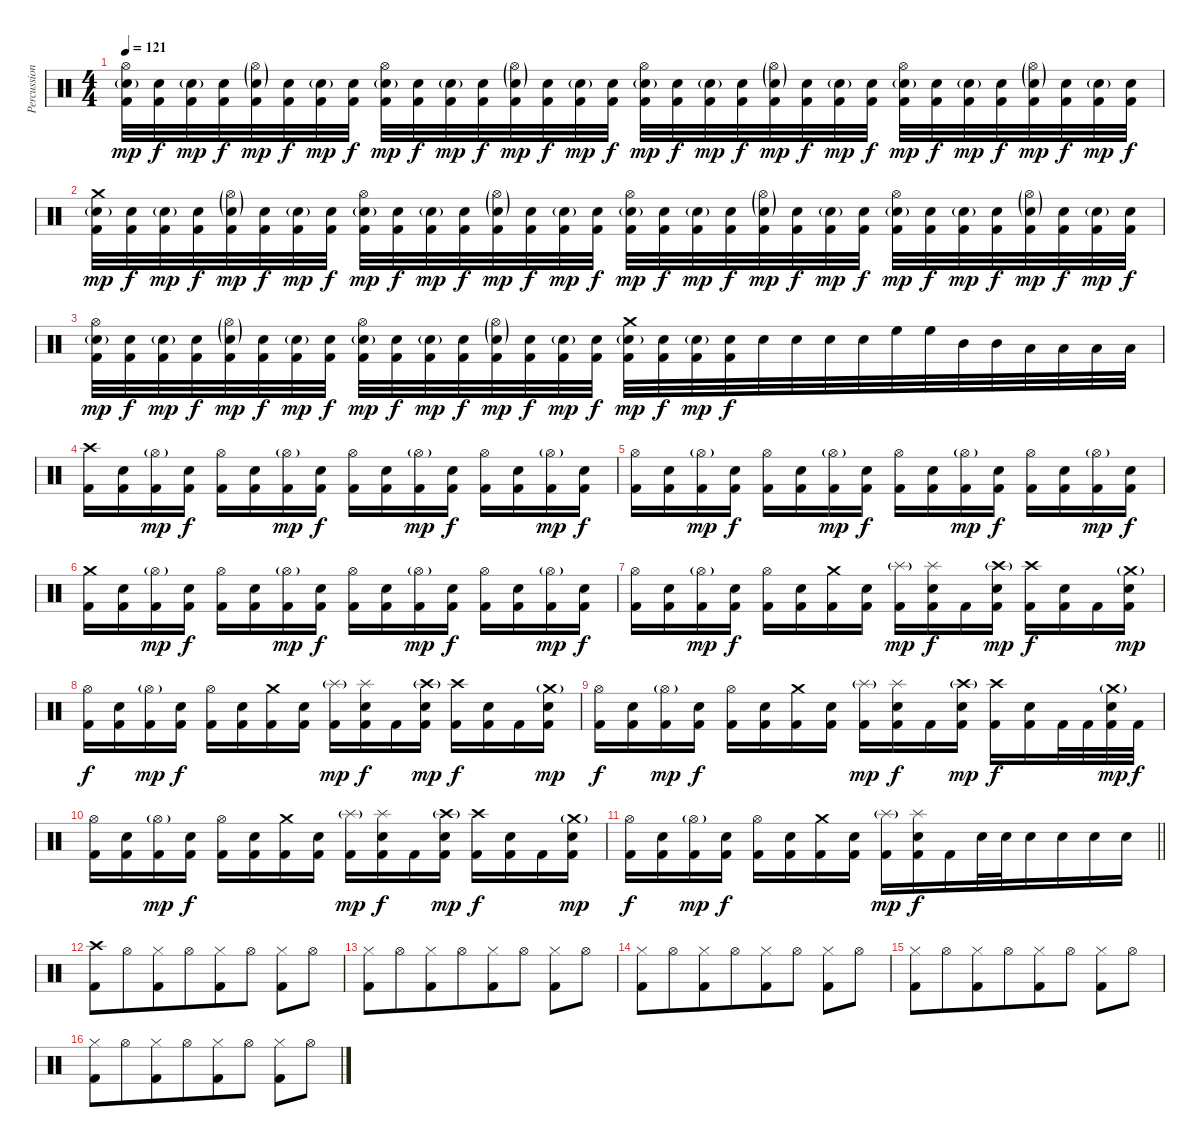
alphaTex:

\track ("Percussion" "Percussion") {instrument percussion}
\staff {score}
\articulation defaults
\ts (4 4)
\tempo 121
\clef neutral
\ks c
("Hi-Hat (open)" "Electric Snare (hit)"{g} "Kick (hit) 2").32{dy mp} ("Electric Snare (hit)" "Kick (hit) 2").32{dy f} ("Electric Snare (hit)"{g} "Kick (hit) 2").32{dy mp} ("Electric Snare (hit)" "Kick (hit) 2").32{dy f beam merge} ("Hi-Hat (open)"{g} "Electric Snare (hit)"{g} "Kick (hit) 2").32{dy mp beam merge} ("Electric Snare (hit)" "Kick (hit) 2").32{dy f beam merge} ("Electric Snare (hit)"{g} "Kick (hit) 2").32{dy mp} ("Electric Snare (hit)" "Kick (hit) 2").32{dy f} ("Hi-Hat (open)" "Electric Snare (hit)"{g} "Kick (hit) 2").32{dy mp} ("Electric Snare (hit)" "Kick (hit) 2").32{dy f} ("Electric Snare (hit)"{g} "Kick (hit) 2").32{dy mp} ("Electric Snare (hit)" "Kick (hit) 2").32{dy f} ("Hi-Hat (open)"{g} "Electric Snare (hit)"{g} "Kick (hit) 2").32{dy mp} ("Electric Snare (hit)" "Kick (hit) 2").32{dy f beam merge} ("Electric Snare (hit)"{g} "Kick (hit) 2").32{dy mp} ("Electric Snare (hit)" "Kick (hit) 2").32{dy f} ("Hi-Hat (open)" "Electric Snare (hit)"{g} "Kick (hit) 2").32{dy mp} ("Electric Snare (hit)" "Kick (hit) 2").32{dy f} ("Electric Snare (hit)"{g} "Kick (hit) 2").32{dy mp} ("Electric Snare (hit)" "Kick (hit) 2").32{dy f beam merge} ("Hi-Hat (open)"{g} "Electric Snare (hit)"{g} "Kick (hit) 2").32{dy mp beam merge} ("Electric Snare (hit)" "Kick (hit) 2").32{dy f beam merge} ("Electric Snare (hit)"{g} "Kick (hit) 2").32{dy mp beam merge} ("Electric Snare (hit)" "Kick (hit) 2").32{dy f} ("Hi-Hat (open)" "Electric Snare (hit)"{g} "Kick (hit) 2").32{dy mp} ("Electric Snare (hit)" "Kick (hit) 2").32{dy f} ("Electric Snare (hit)"{g} "Kick (hit) 2").32{dy mp beam merge} ("Electric Snare (hit)" "Kick (hit) 2").32{dy f} ("Hi-Hat (open)"{g} "Electric Snare (hit)"{g} "Kick (hit) 2").32{dy mp beam merge} ("Electric Snare (hit)" "Kick (hit) 2").32{dy f beam merge} ("Electric Snare (hit)"{g} "Kick (hit) 2").32{dy mp beam merge} ("Electric Snare (hit)" "Kick (hit) 2").32{dy f} |
("Crash medium (hit)" "Electric Snare (hit)"{g} "Kick (hit) 2").32{dy mp} ("Electric Snare (hit)" "Kick (hit) 2").32{dy f} ("Electric Snare (hit)"{g} "Kick (hit) 2").32{dy mp} ("Electric Snare (hit)" "Kick (hit) 2").32{dy f beam merge} ("Hi-Hat (open)"{g} "Electric Snare (hit)"{g} "Kick (hit) 2").32{dy mp beam merge} ("Electric Snare (hit)" "Kick (hit) 2").32{dy f beam merge} ("Electric Snare (hit)"{g} "Kick (hit) 2").32{dy mp} ("Electric Snare (hit)" "Kick (hit) 2").32{dy f} ("Hi-Hat (open)" "Electric Snare (hit)"{g} "Kick (hit) 2").32{dy mp} ("Electric Snare (hit)" "Kick (hit) 2").32{dy f} ("Electric Snare (hit)"{g} "Kick (hit) 2").32{dy mp} ("Electric Snare (hit)" "Kick (hit) 2").32{dy f} ("Hi-Hat (open)"{g} "Electric Snare (hit)"{g} "Kick (hit) 2").32{dy mp} ("Electric Snare (hit)" "Kick (hit) 2").32{dy f beam merge} ("Electric Snare (hit)"{g} "Kick (hit) 2").32{dy mp} ("Electric Snare (hit)" "Kick (hit) 2").32{dy f} ("Hi-Hat (open)" "Electric Snare (hit)"{g} "Kick (hit) 2").32{dy mp} ("Electric Snare (hit)" "Kick (hit) 2").32{dy f} ("Electric Snare (hit)"{g} "Kick (hit) 2").32{dy mp} ("Electric Snare (hit)" "Kick (hit) 2").32{dy f beam merge} ("Hi-Hat (open)"{g} "Electric Snare (hit)"{g} "Kick (hit) 2").32{dy mp beam merge} ("Electric Snare (hit)" "Kick (hit) 2").32{dy f beam merge} ("Electric Snare (hit)"{g} "Kick (hit) 2").32{dy mp beam merge} ("Electric Snare (hit)" "Kick (hit) 2").32{dy f} ("Hi-Hat (open)" "Electric Snare (hit)"{g} "Kick (hit) 2").32{dy mp} ("Electric Snare (hit)" "Kick (hit) 2").32{dy f} ("Electric Snare (hit)"{g} "Kick (hit) 2").32{dy mp beam merge} ("Electric Snare (hit)" "Kick (hit) 2").32{dy f} ("Hi-Hat (open)"{g} "Electric Snare (hit)"{g} "Kick (hit) 2").32{dy mp beam merge} ("Electric Snare (hit)" "Kick (hit) 2").32{dy f beam merge} ("Electric Snare (hit)"{g} "Kick (hit) 2").32{dy mp beam merge} ("Electric Snare (hit)" "Kick (hit) 2").32{dy f} |
("Hi-Hat (open)" "Electric Snare (hit)"{g} "Kick (hit) 2").32{dy mp} ("Electric Snare (hit)" "Kick (hit) 2").32{dy f} ("Electric Snare (hit)"{g} "Kick (hit) 2").32{dy mp} ("Electric Snare (hit)" "Kick (hit) 2").32{dy f beam merge} ("Hi-Hat (open)"{g} "Electric Snare (hit)"{g} "Kick (hit) 2").32{dy mp beam merge} ("Electric Snare (hit)" "Kick (hit) 2").32{dy f beam merge} ("Electric Snare (hit)"{g} "Kick (hit) 2").32{dy mp} ("Electric Snare (hit)" "Kick (hit) 2").32{dy f} ("Hi-Hat (open)" "Electric Snare (hit)"{g} "Kick (hit) 2").32{dy mp} ("Electric Snare (hit)" "Kick (hit) 2").32{dy f} ("Electric Snare (hit)"{g} "Kick (hit) 2").32{dy mp} ("Electric Snare (hit)" "Kick (hit) 2").32{dy f} ("Hi-Hat (open)"{g} "Electric Snare (hit)"{g} "Kick (hit) 2").32{dy mp} ("Electric Snare (hit)" "Kick (hit) 2").32{dy f beam merge} ("Electric Snare (hit)"{g} "Kick (hit) 2").32{dy mp} ("Electric Snare (hit)" "Kick (hit) 2").32{dy f} ("Crash medium (hit)" "Electric Snare (hit)"{g} "Kick (hit) 2").32{dy mp} ("Electric Snare (hit)" "Kick (hit) 2").32{dy f} ("Electric Snare (hit)"{g} "Kick (hit) 2").32{dy mp} ("Electric Snare (hit)" "Kick (hit) 2").32{dy f beam merge} "Electric Snare (hit)".32 "Electric Snare (hit)".32{beam merge} "Electric Snare (hit)".32 "Electric Snare (hit)".32{beam merge} "High Floor Tom (hit)".32 "High Floor Tom (hit)".32 "Mid Tom (hit)".32 "Mid Tom (hit)".32 "Low Floor Tom (hit)".32{beam merge} "Low Floor Tom (hit)".32 "Low Floor Tom (hit)".32 "Low Floor Tom (hit)".32 |
("Crash high (hit)" "Kick (hit) 2").16 ("Electric Snare (hit)" "Kick (hit) 2").16{beam merge} ("Hi-Hat (open)"{g} "Kick (hit) 2").16{dy mp beam merge} ("Electric Snare (hit)" "Kick (hit) 2").16{dy f} ("Hi-Hat (open)" "Kick (hit) 2").16 ("Electric Snare (hit)" "Kick (hit) 2").16 ("Hi-Hat (open)"{g} "Kick (hit) 2").16{dy mp beam merge} ("Electric Snare (hit)" "Kick (hit) 2").16{dy f} ("Hi-Hat (open)" "Kick (hit) 2").16 ("Electric Snare (hit)" "Kick (hit) 2").16{beam merge} ("Hi-Hat (open)"{g} "Kick (hit) 2").16{dy mp beam merge} ("Electric Snare (hit)" "Kick (hit) 2").16{dy f} ("Hi-Hat (open)" "Kick (hit) 2").16 ("Electric Snare (hit)" "Kick (hit) 2").16 ("Hi-Hat (open)"{g} "Kick (hit) 2").16{dy mp beam merge} ("Electric Snare (hit)" "Kick (hit) 2").16{dy f} |
("Hi-Hat (open)" "Kick (hit) 2").16 ("Electric Snare (hit)" "Kick (hit) 2").16{beam merge} ("Hi-Hat (open)"{g} "Kick (hit) 2").16{dy mp beam merge} ("Electric Snare (hit)" "Kick (hit) 2").16{dy f} ("Hi-Hat (open)" "Kick (hit) 2").16 ("Electric Snare (hit)" "Kick (hit) 2").16 ("Hi-Hat (open)"{g} "Kick (hit) 2").16{dy mp beam merge} ("Electric Snare (hit)" "Kick (hit) 2").16{dy f} ("Hi-Hat (open)" "Kick (hit) 2").16 ("Electric Snare (hit)" "Kick (hit) 2").16{beam merge} ("Hi-Hat (open)"{g} "Kick (hit) 2").16{dy mp beam merge} ("Electric Snare (hit)" "Kick (hit) 2").16{dy f} ("Hi-Hat (open)" "Kick (hit) 2").16 ("Electric Snare (hit)" "Kick (hit) 2").16 ("Hi-Hat (open)"{g} "Kick (hit) 2").16{dy mp beam merge} ("Electric Snare (hit)" "Kick (hit) 2").16{dy f} |
("Crash medium (hit)" "Kick (hit) 2").16 ("Electric Snare (hit)" "Kick (hit) 2").16{beam merge} ("Hi-Hat (open)"{g} "Kick (hit) 2").16{dy mp beam merge} ("Electric Snare (hit)" "Kick (hit) 2").16{dy f} ("Hi-Hat (open)" "Kick (hit) 2").16 ("Electric Snare (hit)" "Kick (hit) 2").16 ("Hi-Hat (open)"{g} "Kick (hit) 2").16{dy mp beam merge} ("Electric Snare (hit)" "Kick (hit) 2").16{dy f} ("Hi-Hat (open)" "Kick (hit) 2").16 ("Electric Snare (hit)" "Kick (hit) 2").16{beam merge} ("Hi-Hat (open)"{g} "Kick (hit) 2").16{dy mp beam merge} ("Electric Snare (hit)" "Kick (hit) 2").16{dy f} ("Hi-Hat (open)" "Kick (hit) 2").16 ("Electric Snare (hit)" "Kick (hit) 2").16 ("Hi-Hat (open)"{g} "Kick (hit) 2").16{dy mp beam merge} ("Electric Snare (hit)" "Kick (hit) 2").16{dy f} |
("Hi-Hat (open)" "Kick (hit) 2").16 ("Electric Snare (hit)" "Kick (hit) 2").16{beam merge} ("Hi-Hat (open)"{g} "Kick (hit) 2").16{dy mp beam merge} ("Electric Snare (hit)" "Kick (hit) 2").16{dy f} ("Hi-Hat (open)" "Kick (hit) 2").16 ("Electric Snare (hit)" "Kick (hit) 2").16 ("Crash medium (hit)" "Kick (hit) 2").16{beam merge} ("Electric Snare (hit)" "Kick (hit) 2").16 ("Splash (hit)"{g} "Kick (hit) 2").16{dy mp} ("Splash (hit)" "Electric Snare (hit)" "Kick (hit) 2").16{dy f beam merge} "Kick (hit) 2".16{beam merge} ("Crash high (hit)"{g} "Electric Snare (hit)" "Kick (hit) 2").16{dy mp} ("Crash high (hit)" "Kick (hit) 2").16{dy f} ("Electric Snare (hit)" "Kick (hit) 2").16 "Kick (hit) 2".16{beam merge} ("Crash medium (hit)"{g} "Electric Snare (hit)" "Kick (hit) 2").16{dy mp} |
("Hi-Hat (open)" "Kick (hit) 2").16{dy f} ("Electric Snare (hit)" "Kick (hit) 2").16{beam merge} ("Hi-Hat (open)"{g} "Kick (hit) 2").16{dy mp beam merge} ("Electric Snare (hit)" "Kick (hit) 2").16{dy f} ("Hi-Hat (open)" "Kick (hit) 2").16 ("Electric Snare (hit)" "Kick (hit) 2").16 ("Crash medium (hit)" "Kick (hit) 2").16{beam merge} ("Electric Snare (hit)" "Kick (hit) 2").16 ("Splash (hit)"{g} "Kick (hit) 2").16{dy mp} ("Splash (hit)" "Electric Snare (hit)" "Kick (hit) 2").16{dy f beam merge} "Kick (hit) 2".16{beam merge} ("Crash high (hit)"{g} "Electric Snare (hit)" "Kick (hit) 2").16{dy mp} ("Crash high (hit)" "Kick (hit) 2").16{dy f} ("Electric Snare (hit)" "Kick (hit) 2").16 "Kick (hit) 2".16{beam merge} ("Crash medium (hit)"{g} "Electric Snare (hit)" "Kick (hit) 2").16{dy mp} |
("Hi-Hat (open)" "Kick (hit) 2").16{dy f} ("Electric Snare (hit)" "Kick (hit) 2").16{beam merge} ("Hi-Hat (open)"{g} "Kick (hit) 2").16{dy mp beam merge} ("Electric Snare (hit)" "Kick (hit) 2").16{dy f} ("Hi-Hat (open)" "Kick (hit) 2").16 ("Electric Snare (hit)" "Kick (hit) 2").16 ("Crash medium (hit)" "Kick (hit) 2").16{beam merge} ("Electric Snare (hit)" "Kick (hit) 2").16 ("Splash (hit)"{g} "Kick (hit) 2").16{dy mp} ("Splash (hit)" "Electric Snare (hit)" "Kick (hit) 2").16{dy f beam merge} "Kick (hit) 2".16{beam merge} ("Crash high (hit)"{g} "Electric Snare (hit)" "Kick (hit) 2").16{dy mp} ("Crash high (hit)" "Kick (hit) 2").16{dy f} ("Electric Snare (hit)" "Kick (hit) 2").16 "Kick (hit) 2".32 "Kick (hit) 2".32{beam merge} ("Crash medium (hit)"{g} "Electric Snare (hit)" "Kick (hit) 2").32{dy mp} "Kick (hit) 2".32{dy f} |
("Hi-Hat (open)" "Kick (hit) 2").16 ("Electric Snare (hit)" "Kick (hit) 2").16{beam merge} ("Hi-Hat (open)"{g} "Kick (hit) 2").16{dy mp beam merge} ("Electric Snare (hit)" "Kick (hit) 2").16{dy f} ("Hi-Hat (open)" "Kick (hit) 2").16 ("Electric Snare (hit)" "Kick (hit) 2").16 ("Crash medium (hit)" "Kick (hit) 2").16{beam merge} ("Electric Snare (hit)" "Kick (hit) 2").16 ("Splash (hit)"{g} "Kick (hit) 2").16{dy mp} ("Splash (hit)" "Electric Snare (hit)" "Kick (hit) 2").16{dy f beam merge} "Kick (hit) 2".16{beam merge} ("Crash high (hit)"{g} "Electric Snare (hit)" "Kick (hit) 2").16{dy mp} ("Crash high (hit)" "Kick (hit) 2").16{dy f} ("Electric Snare (hit)" "Kick (hit) 2").16 "Kick (hit) 2".16{beam merge} ("Crash medium (hit)"{g} "Electric Snare (hit)" "Kick (hit) 2").16{dy mp} |
\barLineRight lightlight
("Hi-Hat (open)" "Kick (hit) 2").16{dy f} ("Electric Snare (hit)" "Kick (hit) 2").16{beam merge} ("Hi-Hat (open)"{g} "Kick (hit) 2").16{dy mp beam merge} ("Electric Snare (hit)" "Kick (hit) 2").16{dy f} ("Hi-Hat (open)" "Kick (hit) 2").16 ("Electric Snare (hit)" "Kick (hit) 2").16 ("Crash medium (hit)" "Kick (hit) 2").16{beam merge} ("Electric Snare (hit)" "Kick (hit) 2").16 ("Splash (hit)"{g} "Kick (hit) 2").16{dy mp} ("Splash (hit)" "Electric Snare (hit)" "Kick (hit) 2").16{dy f beam merge} "Kick (hit) 2".16 "Electric Snare (hit)".32 "Electric Snare (hit)".32{beam merge} "Electric Snare (hit)".16 "Electric Snare (hit)".16{beam merge} "Electric Snare (hit)".16 "Electric Snare (hit)".16 |
\section ("" "")
("Crash high (hit)" "Kick (hit) 2").8 "Hi-Hat (open)".8{beam merge} ("Hi-Hat (closed)" "Kick (hit) 2").8{beam merge} "Hi-Hat (open)".8{beam merge} ("Hi-Hat (closed)" "Kick (hit) 2").8 "Hi-Hat (open)".8 ("Hi-Hat (closed)" "Kick (hit) 2").8 "Hi-Hat (open)".8 |
("Hi-Hat (closed)" "Kick (hit) 2").8 "Hi-Hat (open)".8{beam merge} ("Hi-Hat (closed)" "Kick (hit) 2").8{beam merge} "Hi-Hat (open)".8{beam merge} ("Hi-Hat (closed)" "Kick (hit) 2").8 "Hi-Hat (open)".8 ("Hi-Hat (closed)" "Kick (hit) 2").8 "Hi-Hat (open)".8 |
("Hi-Hat (closed)" "Kick (hit) 2").8 "Hi-Hat (open)".8{beam merge} ("Hi-Hat (closed)" "Kick (hit) 2").8{beam merge} "Hi-Hat (open)".8{beam merge} ("Hi-Hat (closed)" "Kick (hit) 2").8 "Hi-Hat (open)".8 ("Hi-Hat (closed)" "Kick (hit) 2").8 "Hi-Hat (open)".8 |
("Hi-Hat (closed)" "Kick (hit) 2").8 "Hi-Hat (open)".8{beam merge} ("Hi-Hat (closed)" "Kick (hit) 2").8{beam merge} "Hi-Hat (open)".8{beam merge} ("Hi-Hat (closed)" "Kick (hit) 2").8 "Hi-Hat (open)".8 ("Hi-Hat (closed)" "Kick (hit) 2").8 "Hi-Hat (open)".8 |
("Hi-Hat (closed)" "Kick (hit) 2").8 "Hi-Hat (open)".8{beam merge} ("Hi-Hat (closed)" "Kick (hit) 2").8{beam merge} "Hi-Hat (open)".8{beam merge} ("Hi-Hat (closed)" "Kick (hit) 2").8 "Hi-Hat (open)".8 ("Hi-Hat (closed)" "Kick (hit) 2").8 "Hi-Hat (open)".8
